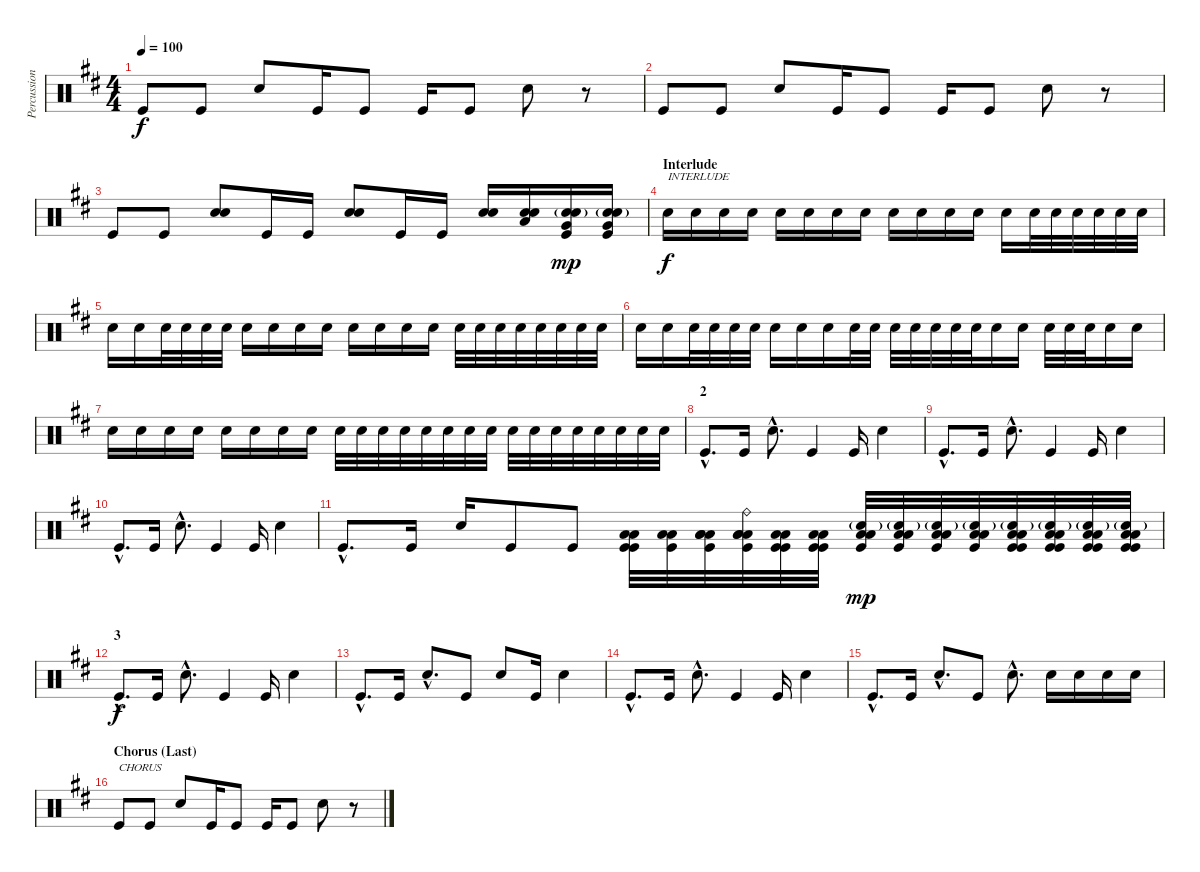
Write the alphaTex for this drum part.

\track ("Percussion" "Percussion") {instrument percussion}
\staff {score}
\articulation defaults
\ts (4 4)
\tempo 100
\clef neutral
\ks d "Kick (hit)".8{dy f} "Kick (hit)".8 "Electric Snare (hit)".8 "Kick (hit)".16 "Kick (hit)".8 "Kick (hit)".16 "Kick (hit)".8 "Electric Snare (hit)".8
r.8 |
"Kick (hit)".8 "Kick (hit)".8 "Electric Snare (hit)".8 "Kick (hit)".16 "Kick (hit)".8 "Kick (hit)".16 "Kick (hit)".8 "Electric Snare (hit)".8 r.8 |
"Kick (hit)".8 "Kick (hit)".8 ("Electric Snare (hit)" "Electric Snare (hit)").8 "Kick (hit)".16 "Kick (hit)".16 ("Electric Snare (hit)" "Electric Snare (hit)").8 "Kick (hit)".16 "Kick (hit)".16 ("Electric Snare (hit)" "Electric Snare (hit)").16 ("Electric Snare (hit)" "Electric Snare (hit)" "Low Tom (hit)").16 ("Electric Snare (hit)"{g} "Electric Snare (hit)"{g} "Kick (hit)" "Very Low Tom (hit)").16{dy mp} ("Electric Snare (hit)"{g} "Electric Snare (hit)"{g} "Kick (hit)" "Very Low Tom (hit)").16 |
\section ("" "Interlude")
"Electric Snare (hit)".16{txt "INTERLUDE" dy f volume 7} "Electric Snare (hit)".16 "Electric Snare (hit)".16 "Electric Snare (hit)".16 "Electric Snare (hit)".16 "Electric Snare (hit)".16 "Electric Snare (hit)".16 "Electric Snare (hit)".16 "Electric Snare (hit)".16 "Electric Snare (hit)".16 "Electric Snare (hit)".16 "Electric Snare (hit)".16 "Electric Snare (hit)".16 "Electric Snare (hit)".32 "Electric Snare (hit)".32 "Electric Snare (hit)".32 "Electric Snare (hit)".32 "Electric Snare (hit)".32 "Electric Snare (hit)".32 |
"Electric Snare (hit)".16 "Electric Snare (hit)".16 "Electric Snare (hit)".32 "Electric Snare (hit)".32 "Electric Snare (hit)".32 "Electric Snare (hit)".32 "Electric Snare (hit)".16 "Electric Snare (hit)".16 "Electric Snare (hit)".16 "Electric Snare (hit)".16 "Electric Snare (hit)".16 "Electric Snare (hit)".16 "Electric Snare (hit)".16 "Electric Snare (hit)".16 "Electric Snare (hit)".32 "Electric Snare (hit)".32 "Electric Snare (hit)".32 "Electric Snare (hit)".32 "Electric Snare (hit)".32 "Electric Snare (hit)".32 "Electric Snare (hit)".32 "Electric Snare (hit)".32 |
"Electric Snare (hit)".16{volume 9} "Electric Snare (hit)".16 "Electric Snare (hit)".32 "Electric Snare (hit)".32 "Electric Snare (hit)".32 "Electric Snare (hit)".32 "Electric Snare (hit)".16 "Electric Snare (hit)".16 "Electric Snare (hit)".16 "Electric Snare (hit)".32 "Electric Snare (hit)".32 "Electric Snare (hit)".32 "Electric Snare (hit)".32 "Electric Snare (hit)".32 "Electric Snare (hit)".32 "Electric Snare (hit)".32 "Electric Snare (hit)".16 "Electric Snare (hit)".16 "Electric Snare (hit)".32 "Electric Snare (hit)".32 "Electric Snare (hit)".32 "Electric Snare (hit)".16 "Electric Snare (hit)".16{volume 10} |
"Electric Snare (hit)".16{volume 11} "Electric Snare (hit)".16 "Electric Snare (hit)".16 "Electric Snare (hit)".16 "Electric Snare (hit)".16 "Electric Snare (hit)".16 "Electric Snare (hit)".16 "Electric Snare (hit)".16 "Electric Snare (hit)".32{volume 10} "Electric Snare (hit)".32 "Electric Snare (hit)".32 "Electric Snare (hit)".32 "Electric Snare (hit)".32 "Electric Snare (hit)".32 "Electric Snare (hit)".32 "Electric Snare (hit)".32 "Electric Snare (hit)".32 "Electric Snare (hit)".32 "Electric Snare (hit)".32 "Electric Snare (hit)".32 "Electric Snare (hit)".32 "Electric Snare (hit)".32 "Electric Snare (hit)".32 "Electric Snare (hit)".32 |
\section ("" "2")
"Kick (hit)"{hac}.8{d} "Kick (hit)".16 "Electric Snare (hit)"{hac}.8{d} "Kick (hit)".4 "Kick (hit)".16 "Electric Snare (hit)".4 |
"Kick (hit)"{hac}.8{d} "Kick (hit)".16 "Electric Snare (hit)"{hac}.8{d} "Kick (hit)".4 "Kick (hit)".16 "Electric Snare (hit)".4 |
"Kick (hit)"{hac}.8{d} "Kick (hit)".16 "Electric Snare (hit)"{hac}.8{d} "Kick (hit)".4 "Kick (hit)".16 "Electric Snare (hit)".4 |
"Kick (hit)"{hac}.8{d} "Kick (hit)".16 "Electric Snare (hit)".16 "Kick (hit)".8 "Kick (hit)".8 ("Kick (hit)" "Low Tom (hit)" "Low Tom (hit)" "Kick (hit)").32 ("Kick (hit)" "Low Tom (hit)" "Low Tom (hit)").32 ("Kick (hit)" "Low Tom (hit)" "Low Tom (hit)" "Low Tom (hit)").32 ("Kick (hit)" "Low Tom (hit)" "Low Tom (hit)" "Low Tom (hit)" "Ride (bell)").32 ("Kick (hit)" "Low Tom (hit)" "Low Tom (hit)" "Kick (hit)").32{balance 2} ("Kick (hit)" "Low Tom (hit)" "Low Tom (hit)" "Kick (hit)").32 ("Kick (hit)" "Low Tom (hit)" "Low Tom (hit)" "Electric Snare (hit)"{g}).32{dy mp} ("Kick (hit)" "Low Tom (hit)" "Low Tom (hit)" "Electric Snare (hit)"{g}).32 ("Kick (hit)" "Low Tom (hit)" "Low Tom (hit)" "Electric Snare (hit)"{g}).32{balance 14} ("Kick (hit)" "Low Tom (hit)" "Low Tom (hit)" "Electric Snare (hit)"{g}).32 ("Kick (hit)" "Kick (hit)" "Low Tom (hit)" "Low Tom (hit)" "Electric Snare (hit)"{g}).32 ("Kick (hit)" "Kick (hit)" "Low Tom (hit)" "Low Tom (hit)" "Electric Snare (hit)"{g}).32{balance 2} ("Kick (hit)" "Kick (hit)" "Low Tom (hit)" "Low Tom (hit)" "Electric Snare (hit)"{g}).32 ("Kick (hit)" "Kick (hit)" "Low Tom (hit)" "Low Tom (hit)" "Electric Snare (hit)"{g}).32{balance 14} |
\section ("" "3")
"Kick (hit)"{hac}.8{d dy f balance 8} "Kick (hit)".16 "Electric Snare (hit)"{hac}.8{d} "Kick (hit)".4 "Kick (hit)".16 "Electric Snare (hit)".4 |
"Kick (hit)"{hac}.8{d} "Kick (hit)".16 "Electric Snare (hit)"{hac}.8{d} "Kick (hit)".8 "Electric Snare (hit)".8 "Kick (hit)".16 "Electric Snare (hit)".4 |
"Kick (hit)"{hac}.8{d} "Kick (hit)".16 "Electric Snare (hit)"{hac}.8{d} "Kick (hit)".4 "Kick (hit)".16 "Electric Snare (hit)".4 |
"Kick (hit)"{hac}.8{d} "Kick (hit)".16 "Electric Snare (hit)"{hac}.8{d} "Kick (hit)".8 "Electric Snare (hit)"{hac}.8{d} "Electric Snare (hit)".16 "Electric Snare (hit)".16 "Electric Snare (hit)".16 "Electric Snare (hit)".16 |
\section ("" "Chorus (Last)")
"Kick (hit)".8{txt "CHORUS" volume 16} "Kick (hit)".8 "Electric Snare (hit)".8 "Kick (hit)".16 "Kick (hit)".8 "Kick (hit)".16 "Kick (hit)".8 "Electric Snare (hit)".8 r.8
